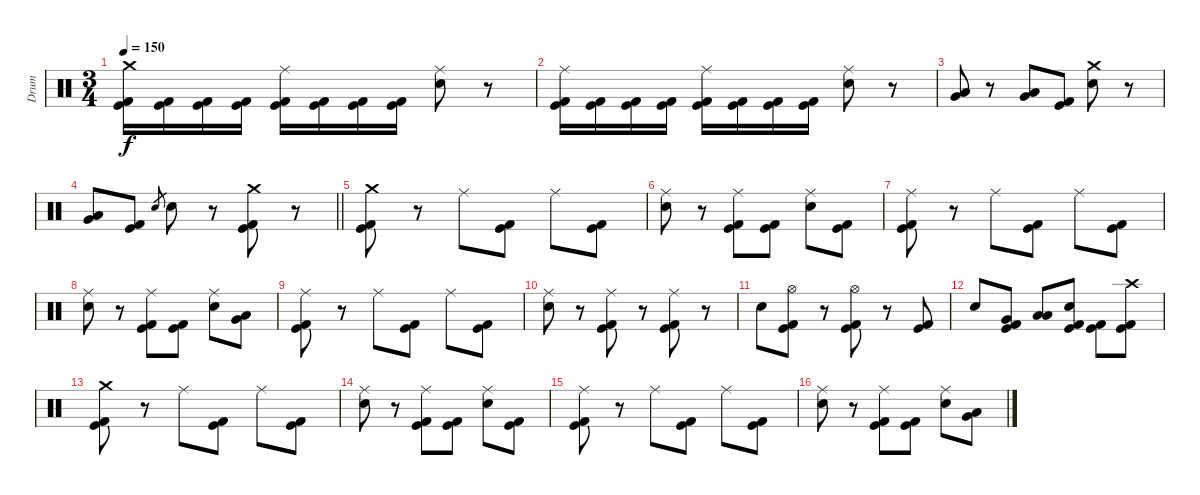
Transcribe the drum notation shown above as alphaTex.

\track ("Drum" "Drum") {instrument percussion}
\staff {score}
\articulation defaults
\ts (3 4)
\tempo 150
\clef neutral
\ks c
("Crash medium (hit)" "Kick (hit)" "Kick (hit) 2").16{dy f} ("Kick (hit)" "Kick (hit) 2").16 ("Kick (hit)" "Kick (hit) 2").16 ("Kick (hit)" "Kick (hit) 2").16 ("Ride (middle)" "Kick (hit)" "Kick (hit) 2").16 ("Kick (hit)" "Kick (hit) 2").16 ("Kick (hit)" "Kick (hit) 2").16 ("Kick (hit)" "Kick (hit) 2").16 ("Ride (middle)" "Electric Snare (hit)").8 r.8 |
("Ride (middle)" "Kick (hit)" "Kick (hit) 2").16 ("Kick (hit)" "Kick (hit) 2").16 ("Kick (hit)" "Kick (hit) 2").16 ("Kick (hit)" "Kick (hit) 2").16 ("Ride (middle)" "Kick (hit)" "Kick (hit) 2").16 ("Kick (hit)" "Kick (hit) 2").16 ("Kick (hit)" "Kick (hit) 2").16 ("Kick (hit)" "Kick (hit) 2").16 ("Ride (middle)" "Electric Snare (hit)").8 r.8 |
("Low Tom (hit)" "Very Low Tom (hit)").8 r.8 ("Low Tom (hit)" "Very Low Tom (hit)").8 ("Kick (hit)" "Kick (hit) 2").8 ("Crash medium (hit)" "Electric Snare (hit)").8 r.8 |
\barLineRight lightlight
("Low Tom (hit)" "Very Low Tom (hit)").8 ("Kick (hit)" "Kick (hit) 2").8 "Electric Snare (hit)".8{gr} "Electric Snare (hit)".8 r.8 ("Crash medium (hit)" "Kick (hit)" "Kick (hit) 2").8 r.8 |
\section ("" "")
("Crash medium (hit)" "Kick (hit)" "Kick (hit) 2").8 r.8 "Ride (middle)".8 ("Kick (hit)" "Kick (hit) 2").8 "Ride (middle)".8 ("Kick (hit)" "Kick (hit) 2").8 |
("Ride (middle)" "Electric Snare (hit)").8 r.8 ("Ride (middle)" "Kick (hit)" "Kick (hit) 2").8 ("Kick (hit)" "Kick (hit) 2").8 ("Ride (middle)" "Electric Snare (hit)").8 ("Kick (hit)" "Kick (hit) 2").8 |
("Ride (middle)" "Kick (hit)" "Kick (hit) 2").8 r.8 "Ride (middle)".8 ("Kick (hit)" "Kick (hit) 2").8 "Ride (middle)".8 ("Kick (hit)" "Kick (hit) 2").8 |
("Ride (middle)" "Electric Snare (hit)").8 r.8 ("Ride (middle)" "Kick (hit)" "Kick (hit) 2").8 ("Kick (hit)" "Kick (hit) 2").8 ("Ride (middle)" "Electric Snare (hit)").8 ("Low Tom (hit)" "Very Low Tom (hit)").8 |
("Ride (middle)" "Kick (hit)" "Kick (hit) 2").8 r.8 "Ride (middle)".8 ("Kick (hit)" "Kick (hit) 2").8 "Ride (middle)".8 ("Kick (hit)" "Kick (hit) 2").8 |
("Ride (middle)" "Electric Snare (hit)").8 r.8 ("Ride (middle)" "Kick (hit)" "Kick (hit) 2").8 r.8 ("Ride (middle)" "Kick (hit)" "Kick (hit) 2").8 r.8 |
"Electric Snare (hit)".8 ("Hi-Hat (open)" "Kick (hit)" "Kick (hit) 2").8 r.8 ("Hi-Hat (open)" "Kick (hit)" "Kick (hit) 2").8 r.8 ("Kick (hit)" "Kick (hit) 2").8 |
"Electric Snare (hit)".8 ("Very Low Tom (hit)" "Kick (hit)" "Kick (hit) 2").8 ("Low Tom (hit)" "Low Tom (hit)").8 ("Electric Snare (hit)" "Kick (hit)" "Kick (hit) 2").8 ("Kick (hit)" "Kick (hit) 2").8 ("Crash high (hit)" "Kick (hit)" "Kick (hit) 2").8 |
("Crash medium (hit)" "Kick (hit)" "Kick (hit) 2").8 r.8 "Ride (middle)".8 ("Kick (hit)" "Kick (hit) 2").8 "Ride (middle)".8 ("Kick (hit)" "Kick (hit) 2").8 |
("Ride (middle)" "Electric Snare (hit)").8 r.8 ("Ride (middle)" "Kick (hit)" "Kick (hit) 2").8 ("Kick (hit)" "Kick (hit) 2").8 ("Ride (middle)" "Electric Snare (hit)").8 ("Kick (hit)" "Kick (hit) 2").8 |
("Ride (middle)" "Kick (hit)" "Kick (hit) 2").8 r.8 "Ride (middle)".8 ("Kick (hit)" "Kick (hit) 2").8 "Ride (middle)".8 ("Kick (hit)" "Kick (hit) 2").8 |
("Ride (middle)" "Electric Snare (hit)").8 r.8 ("Ride (middle)" "Kick (hit)" "Kick (hit) 2").8 ("Kick (hit)" "Kick (hit) 2").8 ("Ride (middle)" "Electric Snare (hit)").8 ("Low Tom (hit)" "Very Low Tom (hit)").8
